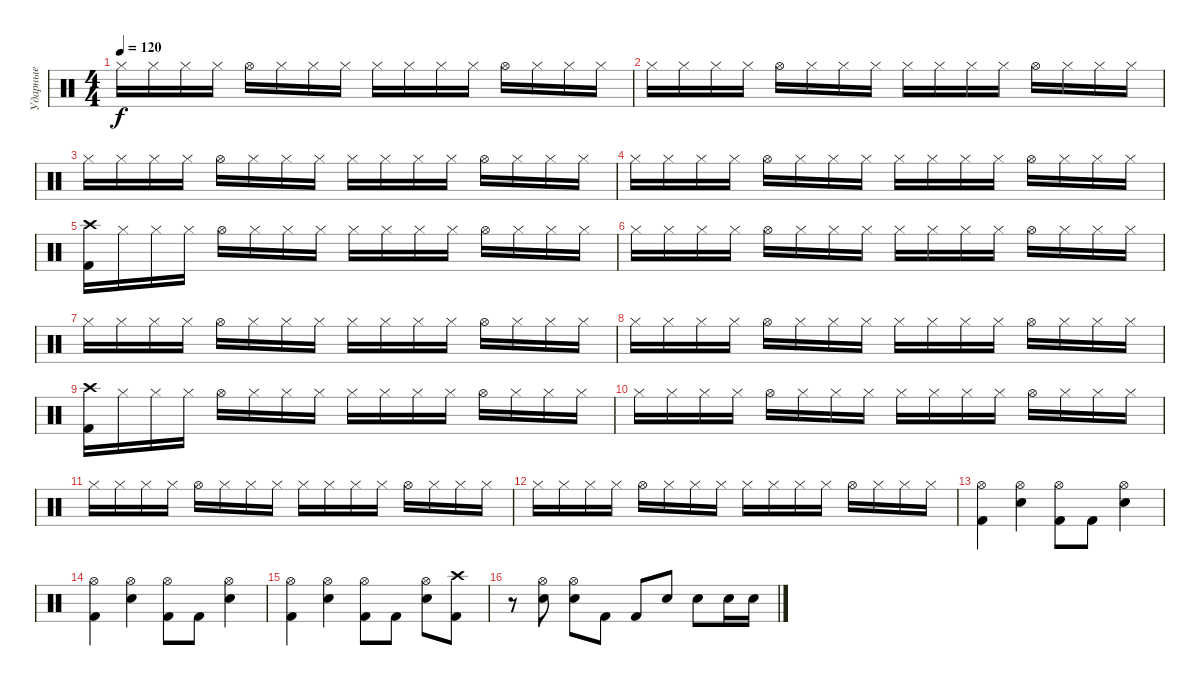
\track ("Ударные" "Ударные") {instrument percussion}
\staff {score}
\articulation defaults
\ts (4 4)
\tempo 120
\clef neutral
\ks c "Hi-Hat (closed)".16{dy f} "Hi-Hat (closed)".16 "Hi-Hat (closed)".16 "Hi-Hat (closed)".16 "Hi-Hat (open)".16 "Hi-Hat (closed)".16 "Hi-Hat (closed)".16 "Hi-Hat (closed)".16 "Hi-Hat (closed)".16 "Hi-Hat (closed)".16 "Hi-Hat (closed)".16 "Hi-Hat (closed)".16 "Hi-Hat (open)".16 "Hi-Hat (closed)".16 "Hi-Hat (closed)".16 "Hi-Hat (closed)".16
|
"Hi-Hat (closed)".16 "Hi-Hat (closed)".16 "Hi-Hat (closed)".16 "Hi-Hat (closed)".16 "Hi-Hat (open)".16 "Hi-Hat (closed)".16 "Hi-Hat (closed)".16 "Hi-Hat (closed)".16 "Hi-Hat (closed)".16 "Hi-Hat (closed)".16 "Hi-Hat (closed)".16 "Hi-Hat (closed)".16 "Hi-Hat (open)".16 "Hi-Hat (closed)".16 "Hi-Hat (closed)".16 "Hi-Hat (closed)".16 |
"Hi-Hat (closed)".16 "Hi-Hat (closed)".16 "Hi-Hat (closed)".16 "Hi-Hat (closed)".16 "Hi-Hat (open)".16 "Hi-Hat (closed)".16 "Hi-Hat (closed)".16 "Hi-Hat (closed)".16 "Hi-Hat (closed)".16 "Hi-Hat (closed)".16 "Hi-Hat (closed)".16 "Hi-Hat (closed)".16 "Hi-Hat (open)".16 "Hi-Hat (closed)".16 "Hi-Hat (closed)".16 "Hi-Hat (closed)".16 |
"Hi-Hat (closed)".16 "Hi-Hat (closed)".16 "Hi-Hat (closed)".16 "Hi-Hat (closed)".16 "Hi-Hat (open)".16 "Hi-Hat (closed)".16 "Hi-Hat (closed)".16 "Hi-Hat (closed)".16 "Hi-Hat (closed)".16 "Hi-Hat (closed)".16 "Hi-Hat (closed)".16 "Hi-Hat (closed)".16 "Hi-Hat (open)".16 "Hi-Hat (closed)".16 "Hi-Hat (closed)".16 "Hi-Hat (closed)".16 |
("Crash high (hit)" "Kick (hit) 2").16 "Hi-Hat (closed)".16 "Hi-Hat (closed)".16 "Hi-Hat (closed)".16 "Hi-Hat (open)".16 "Hi-Hat (closed)".16 "Hi-Hat (closed)".16 "Hi-Hat (closed)".16 "Hi-Hat (closed)".16 "Hi-Hat (closed)".16 "Hi-Hat (closed)".16 "Hi-Hat (closed)".16 "Hi-Hat (open)".16 "Hi-Hat (closed)".16 "Hi-Hat (closed)".16 "Hi-Hat (closed)".16 |
"Hi-Hat (closed)".16 "Hi-Hat (closed)".16 "Hi-Hat (closed)".16 "Hi-Hat (closed)".16 "Hi-Hat (open)".16 "Hi-Hat (closed)".16 "Hi-Hat (closed)".16 "Hi-Hat (closed)".16 "Hi-Hat (closed)".16 "Hi-Hat (closed)".16 "Hi-Hat (closed)".16 "Hi-Hat (closed)".16 "Hi-Hat (open)".16 "Hi-Hat (closed)".16 "Hi-Hat (closed)".16 "Hi-Hat (closed)".16 |
"Hi-Hat (closed)".16 "Hi-Hat (closed)".16 "Hi-Hat (closed)".16 "Hi-Hat (closed)".16 "Hi-Hat (open)".16 "Hi-Hat (closed)".16 "Hi-Hat (closed)".16 "Hi-Hat (closed)".16 "Hi-Hat (closed)".16 "Hi-Hat (closed)".16 "Hi-Hat (closed)".16 "Hi-Hat (closed)".16 "Hi-Hat (open)".16 "Hi-Hat (closed)".16 "Hi-Hat (closed)".16 "Hi-Hat (closed)".16 |
"Hi-Hat (closed)".16 "Hi-Hat (closed)".16 "Hi-Hat (closed)".16 "Hi-Hat (closed)".16 "Hi-Hat (open)".16 "Hi-Hat (closed)".16 "Hi-Hat (closed)".16 "Hi-Hat (closed)".16 "Hi-Hat (closed)".16 "Hi-Hat (closed)".16 "Hi-Hat (closed)".16 "Hi-Hat (closed)".16 "Hi-Hat (open)".16 "Hi-Hat (closed)".16 "Hi-Hat (closed)".16 "Hi-Hat (closed)".16 |
("Crash high (hit)" "Kick (hit) 2").16 "Hi-Hat (closed)".16 "Hi-Hat (closed)".16 "Hi-Hat (closed)".16 "Hi-Hat (open)".16 "Hi-Hat (closed)".16 "Hi-Hat (closed)".16 "Hi-Hat (closed)".16 "Hi-Hat (closed)".16 "Hi-Hat (closed)".16 "Hi-Hat (closed)".16 "Hi-Hat (closed)".16 "Hi-Hat (open)".16 "Hi-Hat (closed)".16 "Hi-Hat (closed)".16 "Hi-Hat (closed)".16 |
"Hi-Hat (closed)".16 "Hi-Hat (closed)".16 "Hi-Hat (closed)".16 "Hi-Hat (closed)".16 "Hi-Hat (open)".16 "Hi-Hat (closed)".16 "Hi-Hat (closed)".16 "Hi-Hat (closed)".16 "Hi-Hat (closed)".16 "Hi-Hat (closed)".16 "Hi-Hat (closed)".16 "Hi-Hat (closed)".16 "Hi-Hat (open)".16 "Hi-Hat (closed)".16 "Hi-Hat (closed)".16 "Hi-Hat (closed)".16 |
"Hi-Hat (closed)".16 "Hi-Hat (closed)".16 "Hi-Hat (closed)".16 "Hi-Hat (closed)".16 "Hi-Hat (open)".16 "Hi-Hat (closed)".16 "Hi-Hat (closed)".16 "Hi-Hat (closed)".16 "Hi-Hat (closed)".16 "Hi-Hat (closed)".16 "Hi-Hat (closed)".16 "Hi-Hat (closed)".16 "Hi-Hat (open)".16 "Hi-Hat (closed)".16 "Hi-Hat (closed)".16 "Hi-Hat (closed)".16 |
"Hi-Hat (closed)".16 "Hi-Hat (closed)".16 "Hi-Hat (closed)".16 "Hi-Hat (closed)".16 "Hi-Hat (open)".16 "Hi-Hat (closed)".16 "Hi-Hat (closed)".16 "Hi-Hat (closed)".16 "Hi-Hat (closed)".16 "Hi-Hat (closed)".16 "Hi-Hat (closed)".16 "Hi-Hat (closed)".16 "Hi-Hat (open)".16 "Hi-Hat (closed)".16 "Hi-Hat (closed)".16 "Hi-Hat (closed)".16 |
("Kick (hit) 2" "Hi-Hat (open)").4 ("Snare (hit) 2" "Hi-Hat (open)").4 ("Kick (hit) 2" "Hi-Hat (open)").8 "Kick (hit) 2".8 ("Snare (hit) 2" "Hi-Hat (open)").4 |
("Kick (hit) 2" "Hi-Hat (open)").4 ("Snare (hit) 2" "Hi-Hat (open)").4 ("Kick (hit) 2" "Hi-Hat (open)").8 "Kick (hit) 2".8 ("Snare (hit) 2" "Hi-Hat (open)").4 |
("Kick (hit) 2" "Hi-Hat (open)").4 ("Snare (hit) 2" "Hi-Hat (open)").4 ("Kick (hit) 2" "Hi-Hat (open)").8 "Kick (hit) 2".8 ("Snare (hit) 2" "Hi-Hat (open)").8 ("Kick (hit) 2" "Crash high (hit)").8 |
r.8 ("Snare (hit) 2" "Hi-Hat (open)").8 ("Snare (hit) 2" "Hi-Hat (open)").8 "Kick (hit) 2".8 "Kick (hit) 2".8 "Snare (hit) 2".8 "Snare (hit) 2".8 "Snare (hit) 2".16 "Snare (hit) 2".16
